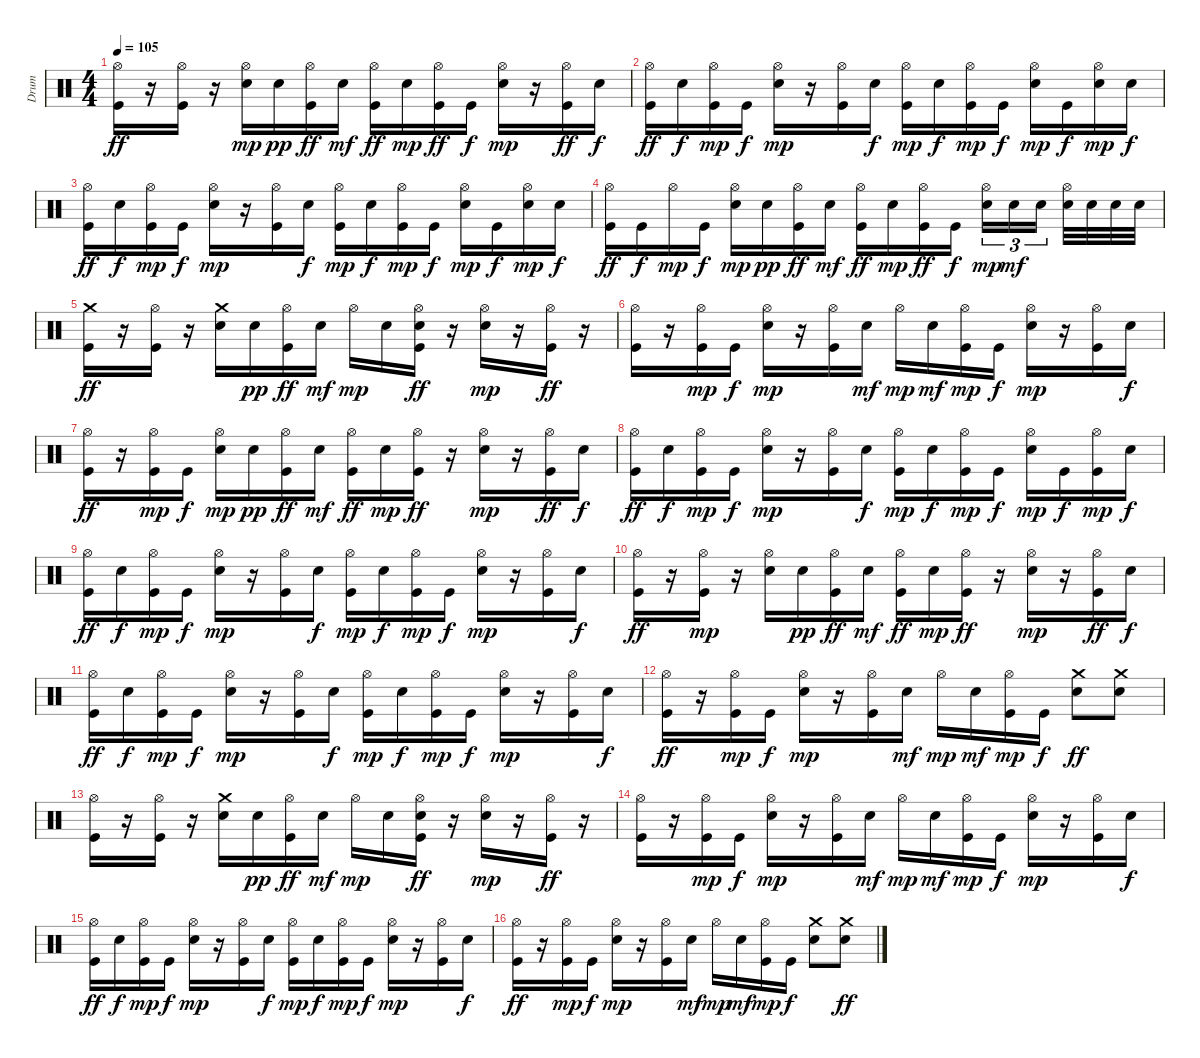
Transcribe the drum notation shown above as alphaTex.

\track ("Drum" "Drum") {instrument percussion}
\staff {score}
\articulation defaults
\ts (4 4)
\tempo 105
\clef neutral
\ks c
("Hi-Hat (open)" "Kick (hit)").16{dy ff} r.16 ("Hi-Hat (open)" "Kick (hit)").16 r.16 ("Hi-Hat (open)" "Electric Snare (hit)").16{dy mp} "Electric Snare (hit)".16{dy pp} ("Hi-Hat (open)" "Kick (hit)").16{dy ff} "Electric Snare (hit)".16{dy mf} ("Hi-Hat (open)" "Kick (hit)").16{dy ff} "Electric Snare (hit)".16{dy mp} ("Hi-Hat (open)" "Kick (hit)").16{dy ff} "Kick (hit)".16{dy f} ("Hi-Hat (open)" "Electric Snare (hit)").16{dy mp} r.16 ("Hi-Hat (open)" "Kick (hit)").16{dy ff} "Electric Snare (hit)".16{dy f} |
("Hi-Hat (open)" "Kick (hit)").16{dy ff} "Electric Snare (hit)".16{dy f} ("Hi-Hat (open)" "Kick (hit)").16{dy mp} "Kick (hit)".16{dy f} ("Hi-Hat (open)" "Electric Snare (hit)").16{dy mp} r.16 ("Hi-Hat (open)" "Kick (hit)").16 "Electric Snare (hit)".16{dy f} ("Hi-Hat (open)" "Kick (hit)").16{dy mp} "Electric Snare (hit)".16{dy f} ("Hi-Hat (open)" "Kick (hit)").16{dy mp} "Kick (hit)".16{dy f} ("Hi-Hat (open)" "Electric Snare (hit)").16{dy mp} "Kick (hit)".16{dy f} ("Hi-Hat (open)" "Electric Snare (hit)").16{dy mp} "Electric Snare (hit)".16{dy f} |
("Hi-Hat (open)" "Kick (hit)").16{dy ff} "Electric Snare (hit)".16{dy f} ("Hi-Hat (open)" "Kick (hit)").16{dy mp} "Kick (hit)".16{dy f} ("Hi-Hat (open)" "Electric Snare (hit)").16{dy mp} r.16 ("Hi-Hat (open)" "Kick (hit)").16 "Electric Snare (hit)".16{dy f} ("Hi-Hat (open)" "Kick (hit)").16{dy mp} "Electric Snare (hit)".16{dy f} ("Hi-Hat (open)" "Kick (hit)").16{dy mp} "Kick (hit)".16{dy f} ("Hi-Hat (open)" "Electric Snare (hit)").16{dy mp} "Kick (hit)".16{dy f} ("Hi-Hat (open)" "Electric Snare (hit)").16{dy mp} "Electric Snare (hit)".16{dy f} |
("Hi-Hat (open)" "Kick (hit)").16{dy ff} "Kick (hit)".16{dy f} "Hi-Hat (open)".16{dy mp} "Kick (hit)".16{dy f} ("Hi-Hat (open)" "Electric Snare (hit)").16{dy mp} "Electric Snare (hit)".16{dy pp} ("Hi-Hat (open)" "Kick (hit)").16{dy ff} "Electric Snare (hit)".16{dy mf} ("Hi-Hat (open)" "Kick (hit)").16{dy ff} "Electric Snare (hit)".16{dy mp} ("Hi-Hat (open)" "Kick (hit)").16{dy ff} "Kick (hit)".16{dy f} ("Hi-Hat (open)" "Electric Snare (hit)").16{tu (3 2) dy mp} "Electric Snare (hit)".16{tu (3 2) dy mf} "Electric Snare (hit)".16{tu (3 2)} ("Hi-Hat (open)" "Electric Snare (hit)").32 "Electric Snare (hit)".32 "Electric Snare (hit)".32 "Electric Snare (hit)".32 |
("Crash medium (hit)" "Kick (hit)").16{dy ff} r.16 ("Hi-Hat (open)" "Kick (hit)").16 r.16 ("Crash medium (hit)" "Electric Snare (hit)").16 "Electric Snare (hit)".16{dy pp} ("Hi-Hat (open)" "Kick (hit)").16{dy ff} "Electric Snare (hit)".16{dy mf} "Hi-Hat (open)".16{dy mp} "Electric Snare (hit)".16 ("Hi-Hat (open)" "Electric Snare (hit)" "Kick (hit)").16{dy ff} r.16 ("Hi-Hat (open)" "Electric Snare (hit)").16{dy mp} r.16 ("Hi-Hat (open)" "Kick (hit)").16{dy ff} r.16 |
("Hi-Hat (open)" "Kick (hit)").16 r.16 ("Hi-Hat (open)" "Kick (hit)").16{dy mp} "Kick (hit)".16{dy f} ("Hi-Hat (open)" "Electric Snare (hit)").16{dy mp} r.16 ("Hi-Hat (open)" "Kick (hit)").16 "Electric Snare (hit)".16{dy mf} "Hi-Hat (open)".16{dy mp} "Electric Snare (hit)".16{dy mf} ("Hi-Hat (open)" "Kick (hit)").16{dy mp} "Kick (hit)".16{dy f} ("Hi-Hat (open)" "Electric Snare (hit)").16{dy mp} r.16 ("Hi-Hat (open)" "Kick (hit)").16 "Electric Snare (hit)".16{dy f} |
("Hi-Hat (open)" "Kick (hit)").16{dy ff} r.16 ("Hi-Hat (open)" "Kick (hit)").16{dy mp} "Kick (hit)".16{dy f} ("Hi-Hat (open)" "Electric Snare (hit)").16{dy mp} "Electric Snare (hit)".16{dy pp} ("Hi-Hat (open)" "Kick (hit)").16{dy ff} "Electric Snare (hit)".16{dy mf} ("Hi-Hat (open)" "Kick (hit)").16{dy ff} "Electric Snare (hit)".16{dy mp} ("Hi-Hat (open)" "Kick (hit)").16{dy ff} r.16 ("Hi-Hat (open)" "Electric Snare (hit)").16{dy mp} r.16 ("Hi-Hat (open)" "Kick (hit)").16{dy ff} "Electric Snare (hit)".16{dy f} |
("Hi-Hat (open)" "Kick (hit)").16{dy ff} "Electric Snare (hit)".16{dy f} ("Hi-Hat (open)" "Kick (hit)").16{dy mp} "Kick (hit)".16{dy f} ("Hi-Hat (open)" "Electric Snare (hit)").16{dy mp} r.16 ("Hi-Hat (open)" "Kick (hit)").16 "Electric Snare (hit)".16{dy f} ("Hi-Hat (open)" "Kick (hit)").16{dy mp} "Electric Snare (hit)".16{dy f} ("Hi-Hat (open)" "Kick (hit)").16{dy mp} "Kick (hit)".16{dy f} ("Hi-Hat (open)" "Electric Snare (hit)").16{dy mp} "Kick (hit)".16{dy f} ("Hi-Hat (open)" "Kick (hit)").16{dy mp} "Electric Snare (hit)".16{dy f} |
("Hi-Hat (open)" "Kick (hit)").16{dy ff} "Electric Snare (hit)".16{dy f} ("Hi-Hat (open)" "Kick (hit)").16{dy mp} "Kick (hit)".16{dy f} ("Hi-Hat (open)" "Electric Snare (hit)").16{dy mp} r.16 ("Hi-Hat (open)" "Kick (hit)").16 "Electric Snare (hit)".16{dy f} ("Hi-Hat (open)" "Kick (hit)").16{dy mp} "Electric Snare (hit)".16{dy f} ("Hi-Hat (open)" "Kick (hit)").16{dy mp} "Kick (hit)".16{dy f} ("Hi-Hat (open)" "Electric Snare (hit)").16{dy mp} r.16 ("Hi-Hat (open)" "Kick (hit)").16 "Electric Snare (hit)".16{dy f} |
("Hi-Hat (open)" "Kick (hit)").16{dy ff} r.16 ("Hi-Hat (open)" "Kick (hit)").16{dy mp} r.16 ("Hi-Hat (open)" "Electric Snare (hit)").16 "Electric Snare (hit)".16{dy pp} ("Hi-Hat (open)" "Kick (hit)").16{dy ff} "Electric Snare (hit)".16{dy mf} ("Hi-Hat (open)" "Kick (hit)").16{dy ff} "Electric Snare (hit)".16{dy mp} ("Hi-Hat (open)" "Kick (hit)").16{dy ff} r.16 ("Hi-Hat (open)" "Electric Snare (hit)").16{dy mp} r.16 ("Hi-Hat (open)" "Kick (hit)").16{dy ff} "Electric Snare (hit)".16{dy f} |
("Hi-Hat (open)" "Kick (hit)").16{dy ff} "Electric Snare (hit)".16{dy f} ("Hi-Hat (open)" "Kick (hit)").16{dy mp} "Kick (hit)".16{dy f} ("Hi-Hat (open)" "Electric Snare (hit)").16{dy mp} r.16 ("Hi-Hat (open)" "Kick (hit)").16 "Electric Snare (hit)".16{dy f} ("Hi-Hat (open)" "Kick (hit)").16{dy mp} "Electric Snare (hit)".16{dy f} ("Hi-Hat (open)" "Kick (hit)").16{dy mp} "Kick (hit)".16{dy f} ("Hi-Hat (open)" "Electric Snare (hit)").16{dy mp} r.16 ("Hi-Hat (open)" "Kick (hit)").16 "Electric Snare (hit)".16{dy f} |
("Hi-Hat (open)" "Kick (hit)").16{dy ff} r.16 ("Hi-Hat (open)" "Kick (hit)").16{dy mp} "Kick (hit)".16{dy f} ("Hi-Hat (open)" "Electric Snare (hit)").16{dy mp} r.16 ("Hi-Hat (open)" "Kick (hit)").16 "Electric Snare (hit)".16{dy mf} "Hi-Hat (open)".16{dy mp} "Electric Snare (hit)".16{dy mf} ("Hi-Hat (open)" "Kick (hit)").16{dy mp} "Kick (hit)".16{dy f} ("Crash medium (hit)" "Electric Snare (hit)").8{dy ff} ("Crash medium (hit)" "Electric Snare (hit)").8 |
("Hi-Hat (open)" "Kick (hit)").16 r.16 ("Hi-Hat (open)" "Kick (hit)").16 r.16 ("Crash medium (hit)" "Electric Snare (hit)").16 "Electric Snare (hit)".16{dy pp} ("Hi-Hat (open)" "Kick (hit)").16{dy ff} "Electric Snare (hit)".16{dy mf} "Hi-Hat (open)".16{dy mp} "Electric Snare (hit)".16 ("Hi-Hat (open)" "Electric Snare (hit)" "Kick (hit)").16{dy ff} r.16 ("Hi-Hat (open)" "Electric Snare (hit)").16{dy mp} r.16 ("Hi-Hat (open)" "Kick (hit)").16{dy ff} r.16 |
("Hi-Hat (open)" "Kick (hit)").16 r.16 ("Hi-Hat (open)" "Kick (hit)").16{dy mp} "Kick (hit)".16{dy f} ("Hi-Hat (open)" "Electric Snare (hit)").16{dy mp} r.16 ("Hi-Hat (open)" "Kick (hit)").16 "Electric Snare (hit)".16{dy mf} "Hi-Hat (open)".16{dy mp} "Electric Snare (hit)".16{dy mf} ("Hi-Hat (open)" "Kick (hit)").16{dy mp} "Kick (hit)".16{dy f} ("Hi-Hat (open)" "Electric Snare (hit)").16{dy mp} r.16 ("Hi-Hat (open)" "Kick (hit)").16 "Electric Snare (hit)".16{dy f} |
("Hi-Hat (open)" "Kick (hit)").16{dy ff} "Electric Snare (hit)".16{dy f} ("Hi-Hat (open)" "Kick (hit)").16{dy mp} "Kick (hit)".16{dy f} ("Hi-Hat (open)" "Electric Snare (hit)").16{dy mp} r.16 ("Hi-Hat (open)" "Kick (hit)").16 "Electric Snare (hit)".16{dy f} ("Hi-Hat (open)" "Kick (hit)").16{dy mp} "Electric Snare (hit)".16{dy f} ("Hi-Hat (open)" "Kick (hit)").16{dy mp} "Kick (hit)".16{dy f} ("Hi-Hat (open)" "Electric Snare (hit)").16{dy mp} r.16 ("Hi-Hat (open)" "Kick (hit)").16 "Electric Snare (hit)".16{dy f} |
("Hi-Hat (open)" "Kick (hit)").16{dy ff} r.16 ("Hi-Hat (open)" "Kick (hit)").16{dy mp} "Kick (hit)".16{dy f} ("Hi-Hat (open)" "Electric Snare (hit)").16{dy mp} r.16 ("Hi-Hat (open)" "Kick (hit)").16 "Electric Snare (hit)".16{dy mf} "Hi-Hat (open)".16{dy mp} "Electric Snare (hit)".16{dy mf} ("Hi-Hat (open)" "Kick (hit)").16{dy mp} "Kick (hit)".16{dy f} ("Crash medium (hit)" "Electric Snare (hit)").8 ("Crash medium (hit)" "Electric Snare (hit)").8{dy ff}
